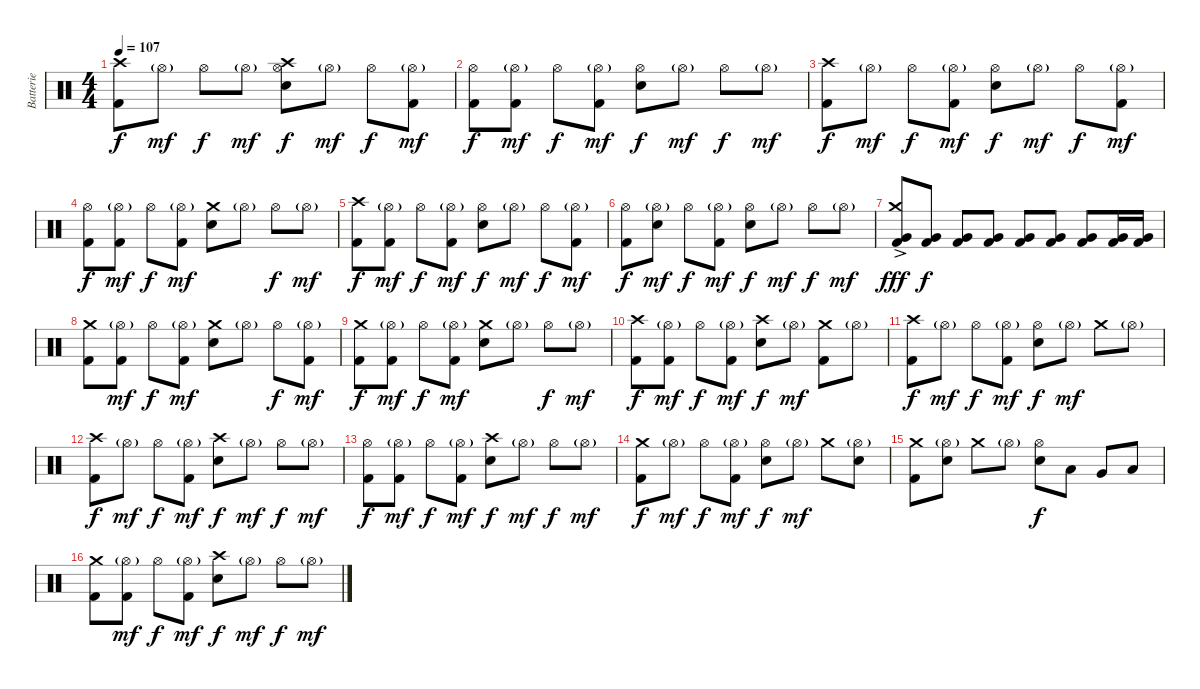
\track ("Batterie" "Batterie") {instrument percussion}
\staff {score}
\articulation defaults
\ts (4 4)
\tempo 107
\clef neutral
\ks c
("Crash high (hit)" "Kick (hit) 2").8{dy f} "Hi-Hat (open)"{g}.8{dy mf} "Hi-Hat (open)".8{dy f} "Hi-Hat (open)"{g}.8{dy mf} ("Crash high (hit)" "Hi-Hat (open)" "Electric Snare (hit)").8{dy f} "Hi-Hat (open)"{g}.8{dy mf} "Hi-Hat (open)".8{dy f} ("Hi-Hat (open)"{g} "Kick (hit) 2").8{dy mf} |
("Hi-Hat (open)" "Kick (hit) 2").8{dy f} ("Hi-Hat (open)"{g} "Kick (hit) 2").8{dy mf} "Hi-Hat (open)".8{dy f} ("Hi-Hat (open)"{g} "Kick (hit) 2").8{dy mf} ("Hi-Hat (open)" "Electric Snare (hit)").8{dy f} "Hi-Hat (open)"{g}.8{dy mf} "Hi-Hat (open)".8{dy f} "Hi-Hat (open)"{g}.8{dy mf} |
("Crash high (hit)" "Kick (hit) 2").8{dy f} "Hi-Hat (open)"{g}.8{dy mf} "Hi-Hat (open)".8{dy f} ("Hi-Hat (open)"{g} "Kick (hit) 2").8{dy mf} ("Hi-Hat (open)" "Electric Snare (hit)").8{dy f} "Hi-Hat (open)"{g}.8{dy mf} "Hi-Hat (open)".8{dy f} ("Hi-Hat (open)"{g} "Kick (hit) 2").8{dy mf} |
("Hi-Hat (open)" "Kick (hit) 2").8{dy f} ("Hi-Hat (open)"{g} "Kick (hit) 2").8{dy mf} "Hi-Hat (open)".8{dy f} ("Hi-Hat (open)"{g} "Kick (hit) 2").8{dy mf} ("Crash medium (hit)" "Electric Snare (hit)").8 "Hi-Hat (open)"{g}.8 "Hi-Hat (open)".8{dy f} "Hi-Hat (open)"{g}.8{dy mf} |
("Crash high (hit)" "Kick (hit) 2").8{dy f} ("Hi-Hat (open)"{g} "Kick (hit) 2").8{dy mf} "Hi-Hat (open)".8{dy f} ("Hi-Hat (open)"{g} "Kick (hit) 2").8{dy mf} ("Hi-Hat (open)" "Electric Snare (hit)").8{dy f} "Hi-Hat (open)"{g}.8{dy mf} "Hi-Hat (open)".8{dy f} ("Hi-Hat (open)"{g} "Kick (hit) 2").8{dy mf} |
("Hi-Hat (open)" "Kick (hit) 2").8{dy f} ("Hi-Hat (open)"{g} "Electric Snare (hit)").8{dy mf} "Hi-Hat (open)".8{dy f} ("Hi-Hat (open)"{g} "Kick (hit) 2").8{dy mf} ("Hi-Hat (open)" "Electric Snare (hit)").8{dy f} "Hi-Hat (open)"{g}.8{dy mf} "Hi-Hat (open)".8{dy f} "Hi-Hat (open)"{g}.8{dy mf} |
("Crash medium (hit)"{ac} "Very Low Tom (hit)" "Kick (hit) 2").8{dy fff volume 8} ("Very Low Tom (hit)" "Kick (hit) 2").8{dy f volume 13} ("Very Low Tom (hit)" "Kick (hit) 2").8 ("Very Low Tom (hit)" "Kick (hit) 2").8 ("Very Low Tom (hit)" "Kick (hit) 2").8 ("Very Low Tom (hit)" "Kick (hit) 2").8 ("Very Low Tom (hit)" "Kick (hit) 2").8 ("Very Low Tom (hit)" "Kick (hit) 2").16 ("Very Low Tom (hit)" "Kick (hit) 2").16 |
("Crash medium (hit)" "Kick (hit) 2").8 ("Hi-Hat (open)"{g} "Kick (hit) 2").8{dy mf} "Hi-Hat (open)".8{dy f} ("Hi-Hat (open)"{g} "Kick (hit) 2").8{dy mf} ("Crash medium (hit)" "Electric Snare (hit)").8 "Hi-Hat (open)"{g}.8 "Hi-Hat (open)".8{dy f} ("Hi-Hat (open)"{g} "Kick (hit) 2").8{dy mf} |
("Crash medium (hit)" "Kick (hit) 2").8{dy f} ("Hi-Hat (open)"{g} "Kick (hit) 2").8{dy mf} "Hi-Hat (open)".8{dy f} ("Hi-Hat (open)"{g} "Kick (hit) 2").8{dy mf} ("Crash medium (hit)" "Electric Snare (hit)").8 "Hi-Hat (open)"{g}.8 "Hi-Hat (open)".8{dy f} "Hi-Hat (open)"{g}.8{dy mf} |
("Crash high (hit)" "Kick (hit) 2").8{dy f} ("Hi-Hat (open)"{g} "Kick (hit) 2").8{dy mf} "Hi-Hat (open)".8{dy f} ("Hi-Hat (open)"{g} "Kick (hit) 2").8{dy mf} ("Crash high (hit)" "Electric Snare (hit)").8{dy f} "Hi-Hat (open)"{g}.8{dy mf} ("Crash medium (hit)" "Kick (hit) 2").8 "Hi-Hat (open)"{g}.8 |
("Crash high (hit)" "Kick (hit) 2").8{dy f} "Hi-Hat (open)"{g}.8{dy mf} "Hi-Hat (open)".8{dy f} ("Hi-Hat (open)"{g} "Kick (hit) 2").8{dy mf} ("Hi-Hat (open)" "Electric Snare (hit)").8{dy f} "Hi-Hat (open)"{g}.8{dy mf} "Crash medium (hit)".8 "Hi-Hat (open)"{g}.8 |
("Crash high (hit)" "Kick (hit) 2").8{dy f} "Hi-Hat (open)"{g}.8{dy mf} "Hi-Hat (open)".8{dy f} ("Hi-Hat (open)"{g} "Kick (hit) 2").8{dy mf} ("Crash high (hit)" "Electric Snare (hit)").8{dy f} "Hi-Hat (open)"{g}.8{dy mf} "Hi-Hat (open)".8{dy f} "Hi-Hat (open)"{g}.8{dy mf} |
("Hi-Hat (open)" "Kick (hit) 2").8{dy f} ("Hi-Hat (open)"{g} "Kick (hit) 2").8{dy mf} "Hi-Hat (open)".8{dy f} ("Hi-Hat (open)"{g} "Kick (hit) 2").8{dy mf} ("Crash high (hit)" "Electric Snare (hit)").8{dy f} "Hi-Hat (open)"{g}.8{dy mf} "Hi-Hat (open)".8{dy f} "Hi-Hat (open)"{g}.8{dy mf} |
("Crash medium (hit)" "Kick (hit) 2").8{dy f} "Hi-Hat (open)"{g}.8{dy mf} "Hi-Hat (open)".8{dy f} ("Hi-Hat (open)"{g} "Kick (hit) 2").8{dy mf} ("Hi-Hat (open)" "Electric Snare (hit)").8{dy f} "Hi-Hat (open)"{g}.8{dy mf} "Crash medium (hit)".8 ("Hi-Hat (open)"{g} "Electric Snare (hit)").8 |
("Crash medium (hit)" "Kick (hit) 2").8 ("Hi-Hat (open)"{g} "Electric Snare (hit)").8 "Crash medium (hit)".8 "Hi-Hat (open)"{g}.8 ("Hi-Hat (open)" "Electric Snare (hit)").8{dy f} "Low Tom (hit)".8 "Very Low Tom (hit)".8 "Low Floor Tom (hit)".8 |
("Crash medium (hit)" "Kick (hit) 2").8 ("Hi-Hat (open)"{g} "Kick (hit) 2").8{dy mf} "Hi-Hat (open)".8{dy f} ("Hi-Hat (open)"{g} "Kick (hit) 2").8{dy mf} ("Crash high (hit)" "Electric Snare (hit)").8{dy f} "Hi-Hat (open)"{g}.8{dy mf} "Hi-Hat (open)".8{dy f} "Hi-Hat (open)"{g}.8{dy mf}
